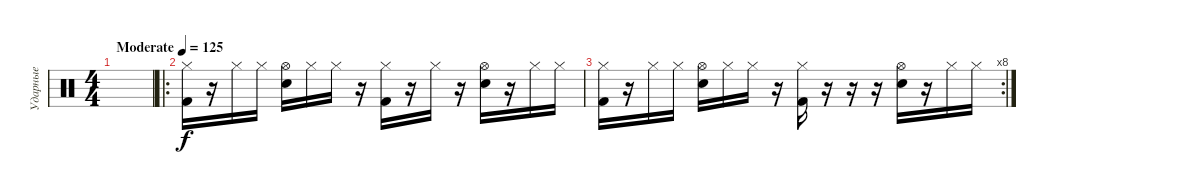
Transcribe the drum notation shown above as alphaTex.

\track ("Ударные" "Ударные") {instrument percussion}
\staff {score}
\articulation defaults
\ts (4 4)
\tempo (125 "Moderate")
\clef neutral
\ks c
|
\ro
("Hi-Hat (closed)" "Kick (hit) 2").16 r.16 "Hi-Hat (closed)".16 "Hi-Hat (closed)".16 ("Hi-Hat (open)" "Electric Snare (hit)").16 "Hi-Hat (closed)".16 "Hi-Hat (closed)".16 r.16 ("Hi-Hat (closed)" "Kick (hit) 2").16 r.16 "Hi-Hat (closed)".16 r.16 ("Hi-Hat (open)" "Electric Snare (hit)").16 r.16 "Hi-Hat (closed)".16 "Hi-Hat (closed)".16 |
\rc 8
("Hi-Hat (closed)" "Kick (hit) 2").16 r.16 "Hi-Hat (closed)".16 "Hi-Hat (closed)".16 ("Hi-Hat (open)" "Electric Snare (hit)").16 "Hi-Hat (closed)".16 "Hi-Hat (closed)".16 r.16 ("Hi-Hat (closed)" "Kick (hit) 2").16 r.16 r.16 r.16 ("Hi-Hat (open)" "Electric Snare (hit)").16 r.16 "Hi-Hat (closed)".16 "Hi-Hat (closed)".16
